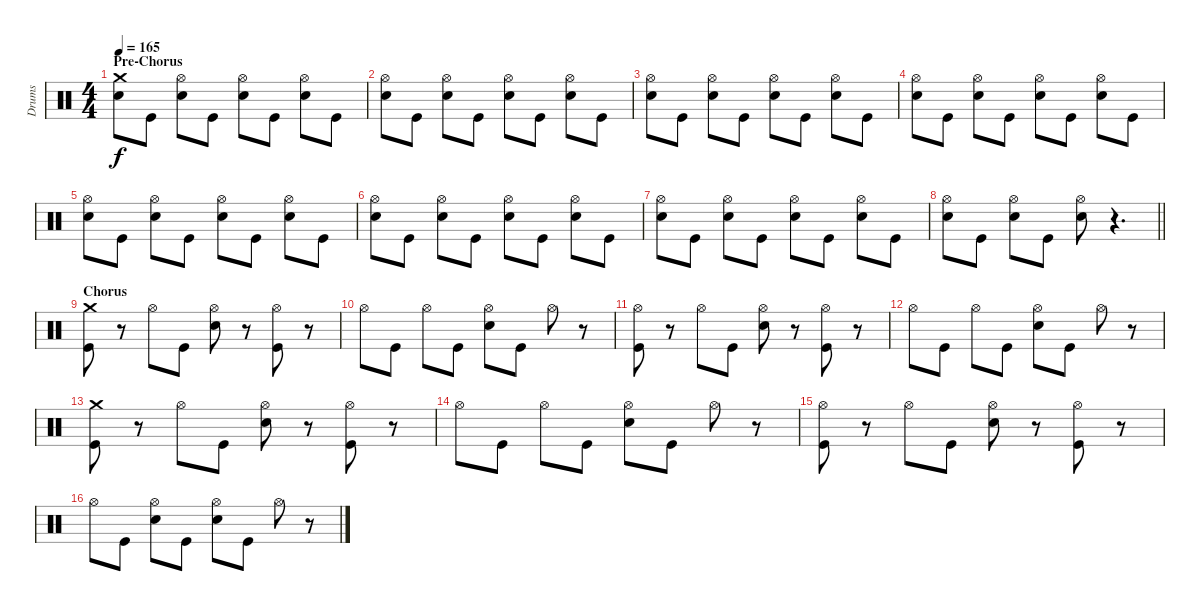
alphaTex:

\track ("Drums" "Drums") {instrument percussion}
\staff {score}
\articulation defaults
\ts (4 4)
\section ("" "Pre-Chorus")
\tempo 165
\clef neutral
\ks c
("Crash medium (hit)" "Electric Snare (hit)").8{dy f} "Kick (hit)".8 ("Hi-Hat (open)" "Electric Snare (hit)").8 "Kick (hit)".8 ("Hi-Hat (open)" "Electric Snare (hit)").8 "Kick (hit)".8 ("Hi-Hat (open)" "Electric Snare (hit)").8 "Kick (hit)".8 |
("Hi-Hat (open)" "Electric Snare (hit)").8 "Kick (hit)".8 ("Hi-Hat (open)" "Electric Snare (hit)").8 "Kick (hit)".8 ("Hi-Hat (open)" "Electric Snare (hit)").8 "Kick (hit)".8 ("Hi-Hat (open)" "Electric Snare (hit)").8 "Kick (hit)".8 |
("Hi-Hat (open)" "Electric Snare (hit)").8 "Kick (hit)".8 ("Hi-Hat (open)" "Electric Snare (hit)").8 "Kick (hit)".8 ("Hi-Hat (open)" "Electric Snare (hit)").8 "Kick (hit)".8 ("Hi-Hat (open)" "Electric Snare (hit)").8 "Kick (hit)".8 |
("Hi-Hat (open)" "Electric Snare (hit)").8 "Kick (hit)".8 ("Hi-Hat (open)" "Electric Snare (hit)").8 "Kick (hit)".8 ("Hi-Hat (open)" "Electric Snare (hit)").8 "Kick (hit)".8 ("Hi-Hat (open)" "Electric Snare (hit)").8 "Kick (hit)".8 |
("Hi-Hat (open)" "Electric Snare (hit)").8 "Kick (hit)".8 ("Hi-Hat (open)" "Electric Snare (hit)").8 "Kick (hit)".8 ("Hi-Hat (open)" "Electric Snare (hit)").8 "Kick (hit)".8 ("Hi-Hat (open)" "Electric Snare (hit)").8 "Kick (hit)".8 |
("Hi-Hat (open)" "Electric Snare (hit)").8 "Kick (hit)".8 ("Hi-Hat (open)" "Electric Snare (hit)").8 "Kick (hit)".8 ("Hi-Hat (open)" "Electric Snare (hit)").8 "Kick (hit)".8 ("Hi-Hat (open)" "Electric Snare (hit)").8 "Kick (hit)".8 |
("Hi-Hat (open)" "Electric Snare (hit)").8 "Kick (hit)".8 ("Hi-Hat (open)" "Electric Snare (hit)").8 "Kick (hit)".8 ("Hi-Hat (open)" "Electric Snare (hit)").8 "Kick (hit)".8 ("Hi-Hat (open)" "Electric Snare (hit)").8 "Kick (hit)".8 |
\barLineRight lightlight
("Hi-Hat (open)" "Electric Snare (hit)").8 "Kick (hit)".8 ("Hi-Hat (open)" "Electric Snare (hit)").8 "Kick (hit)".8 ("Hi-Hat (open)" "Electric Snare (hit)").8 r.4{d} |
\section ("" "Chorus")
("Crash medium (hit)" "Kick (hit)").8 r.8 "Hi-Hat (open)".8 "Kick (hit)".8 ("Hi-Hat (open)" "Electric Snare (hit)").8 r.8 ("Hi-Hat (open)" "Kick (hit)").8 r.8 |
"Hi-Hat (open)".8 "Kick (hit)".8 "Hi-Hat (open)".8 "Kick (hit)".8 ("Hi-Hat (open)" "Electric Snare (hit)").8 "Kick (hit)".8 "Hi-Hat (open)".8 r.8 |
("Hi-Hat (open)" "Kick (hit)").8 r.8 "Hi-Hat (open)".8 "Kick (hit)".8 ("Hi-Hat (open)" "Electric Snare (hit)").8 r.8 ("Hi-Hat (open)" "Kick (hit)").8 r.8 |
"Hi-Hat (open)".8 "Kick (hit)".8 "Hi-Hat (open)".8 "Kick (hit)".8 ("Hi-Hat (open)" "Electric Snare (hit)").8 "Kick (hit)".8 "Hi-Hat (open)".8 r.8 |
("Crash medium (hit)" "Kick (hit)").8 r.8 "Hi-Hat (open)".8 "Kick (hit)".8 ("Hi-Hat (open)" "Electric Snare (hit)").8 r.8 ("Hi-Hat (open)" "Kick (hit)").8 r.8 |
"Hi-Hat (open)".8 "Kick (hit)".8 "Hi-Hat (open)".8 "Kick (hit)".8 ("Hi-Hat (open)" "Electric Snare (hit)").8 "Kick (hit)".8 "Hi-Hat (open)".8 r.8 |
("Hi-Hat (open)" "Kick (hit)").8 r.8 "Hi-Hat (open)".8 "Kick (hit)".8 ("Hi-Hat (open)" "Electric Snare (hit)").8 r.8 ("Hi-Hat (open)" "Kick (hit)").8 r.8 |
"Hi-Hat (open)".8 "Kick (hit)".8 ("Hi-Hat (open)" "Electric Snare (hit)").8 "Kick (hit)".8 ("Hi-Hat (open)" "Electric Snare (hit)").8 "Kick (hit)".8 "Hi-Hat (open)".8 r.8
